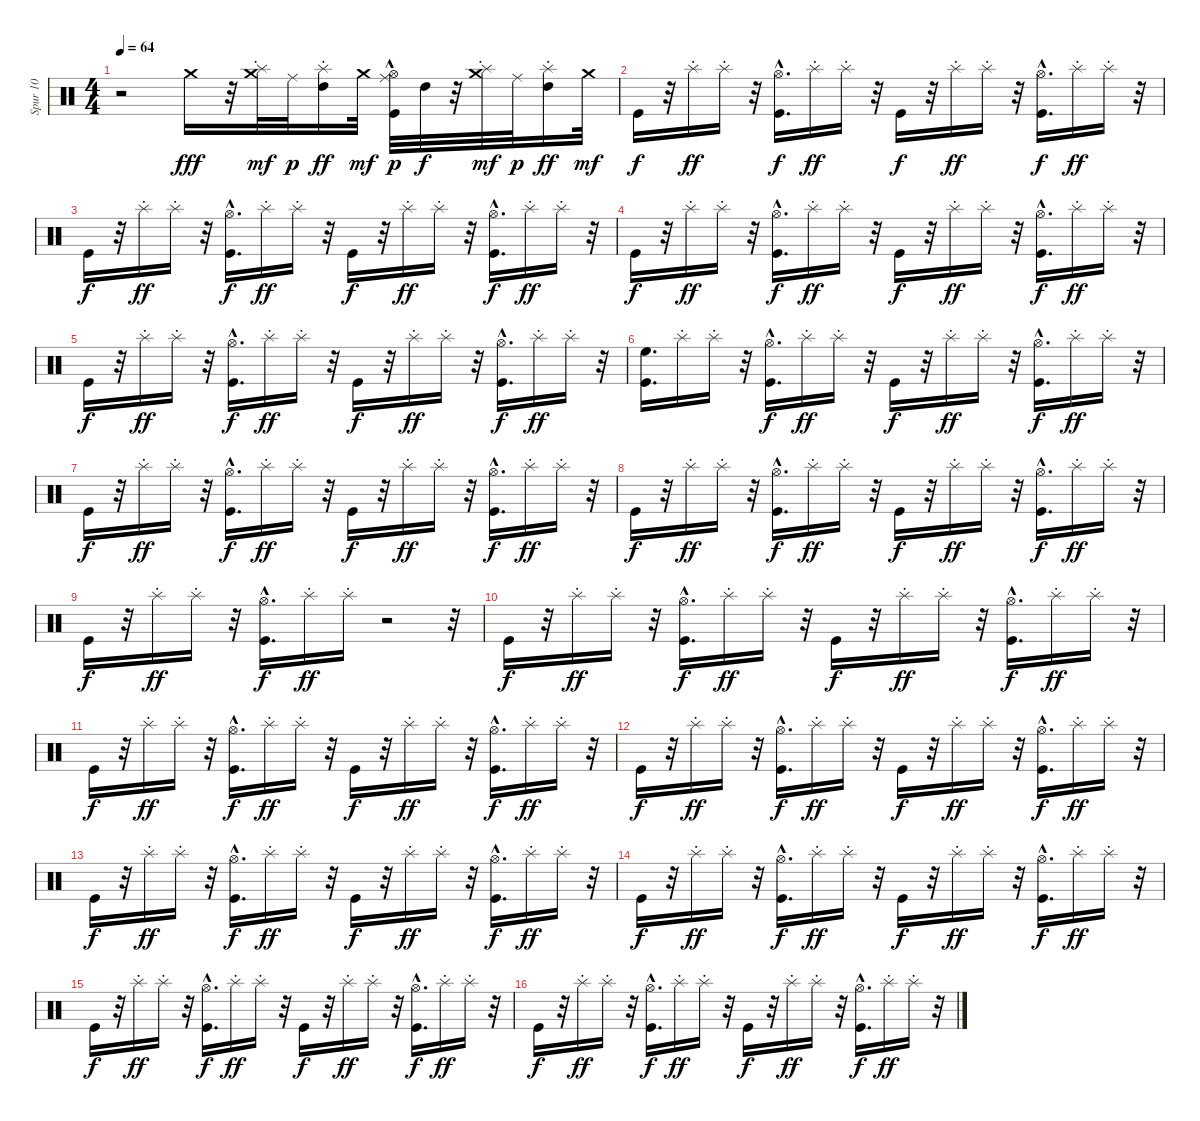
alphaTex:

\track ("Spur 10" "Spur 10") {instrument percussion}
\staff {score}
\articulation defaults
\ts (4 4)
\tempo 64
\clef neutral
\ks c
r.2{dy fff} "Crash medium (hit)".16 r.32 ("Splash (choke)" "Crash medium (hit)").32{dy mf} "Ride (middle)".32{dy p} ("Splash (choke)" "High Tom (hit)").16{dy ff} "Crash medium (hit)".32{dy mf} ("Kick (hit)" "Hi-Hat (open)"{hac} "Ride (middle)").32{dy p} "High Tom (hit)".32{dy f} r.32 ("Splash (choke)" "Crash medium (hit)").32{dy mf} "Ride (middle)".32{dy p} ("Splash (choke)" "High Tom (hit)").16{dy ff} "Crash medium (hit)".32{dy mf} |
"Kick (hit)".16{dy f} r.32 "Splash (choke)".16{dy ff} "Splash (choke)".16 r.32 ("Kick (hit)" "Hi-Hat (open)"{hac}).16{d dy f} "Splash (choke)".16{dy ff} "Splash (choke)".16 r.32 "Kick (hit)".16{dy f} r.32 "Splash (choke)".16{dy ff} "Splash (choke)".16 r.32 ("Kick (hit)" "Hi-Hat (open)"{hac}).16{d dy f} "Splash (choke)".16{dy ff} "Splash (choke)".16 r.32 |
"Kick (hit)".16{dy f} r.32 "Splash (choke)".16{dy ff} "Splash (choke)".16 r.32 ("Kick (hit)" "Hi-Hat (open)"{hac}).16{d dy f} "Splash (choke)".16{dy ff} "Splash (choke)".16 r.32 "Kick (hit)".16{dy f} r.32 "Splash (choke)".16{dy ff} "Splash (choke)".16 r.32 ("Kick (hit)" "Hi-Hat (open)"{hac}).16{d dy f} "Splash (choke)".16{dy ff} "Splash (choke)".16 r.32 |
"Kick (hit)".16{dy f} r.32 "Splash (choke)".16{dy ff} "Splash (choke)".16 r.32 ("Kick (hit)" "Hi-Hat (open)"{hac}).16{d dy f} "Splash (choke)".16{dy ff} "Splash (choke)".16 r.32 "Kick (hit)".16{dy f} r.32 "Splash (choke)".16{dy ff} "Splash (choke)".16 r.32 ("Kick (hit)" "Hi-Hat (open)"{hac}).16{d dy f} "Splash (choke)".16{dy ff} "Splash (choke)".16 r.32 |
"Kick (hit)".16{dy f} r.32 "Splash (choke)".16{dy ff} "Splash (choke)".16 r.32 ("Kick (hit)" "Hi-Hat (open)"{hac}).16{d dy f} "Splash (choke)".16{dy ff} "Splash (choke)".16 r.32 "Kick (hit)".16{dy f} r.32 "Splash (choke)".16{dy ff} "Splash (choke)".16 r.32 ("Kick (hit)" "Hi-Hat (open)"{hac}).16{d dy f} "Splash (choke)".16{dy ff} "Splash (choke)".16 r.32 |
("High Floor Tom (hit)" "Kick (hit)").16{d} "Splash (choke)".16 "Splash (choke)".16 r.32 ("Kick (hit)" "Hi-Hat (open)"{hac}).16{d dy f} "Splash (choke)".16{dy ff} "Splash (choke)".16 r.32 "Kick (hit)".16{dy f} r.32 "Splash (choke)".16{dy ff} "Splash (choke)".16 r.32 ("Kick (hit)" "Hi-Hat (open)"{hac}).16{d dy f} "Splash (choke)".16{dy ff} "Splash (choke)".16 r.32 |
"Kick (hit)".16{dy f} r.32 "Splash (choke)".16{dy ff} "Splash (choke)".16 r.32 ("Kick (hit)" "Hi-Hat (open)"{hac}).16{d dy f} "Splash (choke)".16{dy ff} "Splash (choke)".16 r.32 "Kick (hit)".16{dy f} r.32 "Splash (choke)".16{dy ff} "Splash (choke)".16 r.32 ("Kick (hit)" "Hi-Hat (open)"{hac}).16{d dy f} "Splash (choke)".16{dy ff} "Splash (choke)".16 r.32 |
"Kick (hit)".16{dy f} r.32 "Splash (choke)".16{dy ff} "Splash (choke)".16 r.32 ("Kick (hit)" "Hi-Hat (open)"{hac}).16{d dy f} "Splash (choke)".16{dy ff} "Splash (choke)".16 r.32 "Kick (hit)".16{dy f} r.32 "Splash (choke)".16{dy ff} "Splash (choke)".16 r.32 ("Kick (hit)" "Hi-Hat (open)"{hac}).16{d dy f} "Splash (choke)".16{dy ff} "Splash (choke)".16 r.32 |
"Kick (hit)".16{dy f} r.32 "Splash (choke)".16{dy ff} "Splash (choke)".16 r.32 ("Kick (hit)" "Hi-Hat (open)"{hac}).16{d dy f} "Splash (choke)".16{dy ff} "Splash (choke)".16 r.2 r.32 |
"Kick (hit)".16{dy f} r.32 "Splash (choke)".16{dy ff} "Splash (choke)".16 r.32 ("Kick (hit)" "Hi-Hat (open)"{hac}).16{d dy f} "Splash (choke)".16{dy ff} "Splash (choke)".16 r.32 "Kick (hit)".16{dy f} r.32 "Splash (choke)".16{dy ff} "Splash (choke)".16 r.32 ("Kick (hit)" "Hi-Hat (open)"{hac}).16{d dy f} "Splash (choke)".16{dy ff} "Splash (choke)".16 r.32 |
"Kick (hit)".16{dy f} r.32 "Splash (choke)".16{dy ff} "Splash (choke)".16 r.32 ("Kick (hit)" "Hi-Hat (open)"{hac}).16{d dy f} "Splash (choke)".16{dy ff} "Splash (choke)".16 r.32 "Kick (hit)".16{dy f} r.32 "Splash (choke)".16{dy ff} "Splash (choke)".16 r.32 ("Kick (hit)" "Hi-Hat (open)"{hac}).16{d dy f} "Splash (choke)".16{dy ff} "Splash (choke)".16 r.32 |
"Kick (hit)".16{dy f} r.32 "Splash (choke)".16{dy ff} "Splash (choke)".16 r.32 ("Kick (hit)" "Hi-Hat (open)"{hac}).16{d dy f} "Splash (choke)".16{dy ff} "Splash (choke)".16 r.32 "Kick (hit)".16{dy f} r.32 "Splash (choke)".16{dy ff} "Splash (choke)".16 r.32 ("Kick (hit)" "Hi-Hat (open)"{hac}).16{d dy f} "Splash (choke)".16{dy ff} "Splash (choke)".16 r.32 |
"Kick (hit)".16{dy f} r.32 "Splash (choke)".16{dy ff} "Splash (choke)".16 r.32 ("Kick (hit)" "Hi-Hat (open)"{hac}).16{d dy f} "Splash (choke)".16{dy ff} "Splash (choke)".16 r.32 "Kick (hit)".16{dy f} r.32 "Splash (choke)".16{dy ff} "Splash (choke)".16 r.32 ("Kick (hit)" "Hi-Hat (open)"{hac}).16{d dy f} "Splash (choke)".16{dy ff} "Splash (choke)".16 r.32 |
"Kick (hit)".16{dy f} r.32 "Splash (choke)".16{dy ff} "Splash (choke)".16 r.32 ("Kick (hit)" "Hi-Hat (open)"{hac}).16{d dy f} "Splash (choke)".16{dy ff} "Splash (choke)".16 r.32 "Kick (hit)".16{dy f} r.32 "Splash (choke)".16{dy ff} "Splash (choke)".16 r.32 ("Kick (hit)" "Hi-Hat (open)"{hac}).16{d dy f} "Splash (choke)".16{dy ff} "Splash (choke)".16 r.32 |
"Kick (hit)".16{dy f} r.32 "Splash (choke)".16{dy ff} "Splash (choke)".16 r.32 ("Kick (hit)" "Hi-Hat (open)"{hac}).16{d dy f} "Splash (choke)".16{dy ff} "Splash (choke)".16 r.32 "Kick (hit)".16{dy f} r.32 "Splash (choke)".16{dy ff} "Splash (choke)".16 r.32 ("Kick (hit)" "Hi-Hat (open)"{hac}).16{d dy f} "Splash (choke)".16{dy ff} "Splash (choke)".16 r.32 |
"Kick (hit)".16{dy f} r.32 "Splash (choke)".16{dy ff} "Splash (choke)".16 r.32 ("Kick (hit)" "Hi-Hat (open)"{hac}).16{d dy f} "Splash (choke)".16{dy ff} "Splash (choke)".16 r.32 "Kick (hit)".16{dy f} r.32 "Splash (choke)".16{dy ff} "Splash (choke)".16 r.32 ("Kick (hit)" "Hi-Hat (open)"{hac}).16{d dy f} "Splash (choke)".16{dy ff} "Splash (choke)".16 r.32
